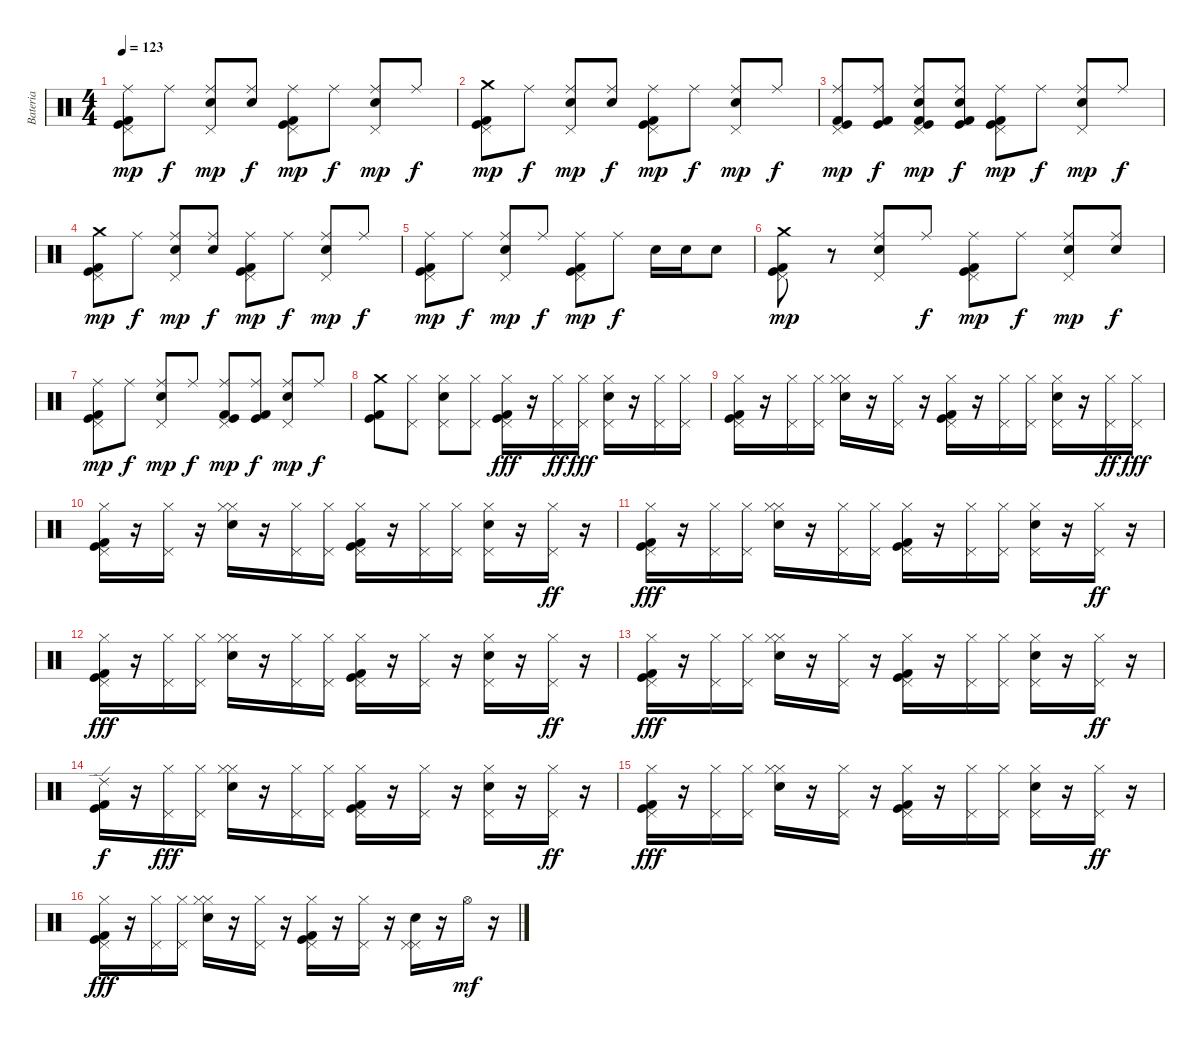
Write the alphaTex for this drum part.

\track ("Bateria" "Bateria") {instrument percussion}
\staff {score}
\articulation defaults
\ts (4 4)
\tempo 123
\clef neutral
\ks c
("Kick (hit) 2" "Pedal Hi-Hat (hit)" "Ride (middle)" "Kick (hit)").8{dy mp} "Ride (middle)".8{dy f} ("Snare (hit) 2" "Pedal Hi-Hat (hit)" "Ride (middle)").8{dy mp} ("Snare (hit) 2" "Ride (middle)").8{dy f} ("Kick (hit) 2" "Pedal Hi-Hat (hit)" "Ride (middle)" "Kick (hit)").8{dy mp} "Ride (middle)".8{dy f} ("Snare (hit) 2" "Pedal Hi-Hat (hit)" "Ride (middle)").8{dy mp} "Ride (middle)".8{dy f} |
("Kick (hit) 2" "Pedal Hi-Hat (hit)" "Crash medium (hit)" "Kick (hit)").8{dy mp} "Ride (middle)".8{dy f} ("Snare (hit) 2" "Pedal Hi-Hat (hit)" "Ride (middle)").8{dy mp} ("Snare (hit) 2" "Ride (middle)").8{dy f} ("Kick (hit) 2" "Pedal Hi-Hat (hit)" "Ride (middle)" "Kick (hit)").8{dy mp} "Ride (middle)".8{dy f} ("Snare (hit) 2" "Pedal Hi-Hat (hit)" "Ride (middle)").8{dy mp} "Ride (middle)".8{dy f} |
("Kick (hit) 2" "Pedal Hi-Hat (hit)" "Ride (middle)" "Kick (hit)").8{dy mp} ("Kick (hit) 2" "Ride (middle)" "Kick (hit)").8{dy f} ("Snare (hit) 2" "Pedal Hi-Hat (hit)" "Kick (hit) 2" "Ride (middle)" "Kick (hit)").8{dy mp} ("Snare (hit) 2" "Kick (hit) 2" "Ride (middle)" "Kick (hit)").8{dy f} ("Kick (hit) 2" "Pedal Hi-Hat (hit)" "Ride (middle)" "Kick (hit)").8{dy mp} "Ride (middle)".8{dy f} ("Snare (hit) 2" "Pedal Hi-Hat (hit)" "Ride (middle)").8{dy mp} "Ride (middle)".8{dy f} |
("Kick (hit) 2" "Pedal Hi-Hat (hit)" "Crash medium (hit)" "Kick (hit)").8{dy mp} "Ride (middle)".8{dy f} ("Snare (hit) 2" "Pedal Hi-Hat (hit)" "Ride (middle)").8{dy mp} ("Snare (hit) 2" "Ride (middle)").8{dy f} ("Kick (hit) 2" "Pedal Hi-Hat (hit)" "Ride (middle)" "Kick (hit)").8{dy mp} "Ride (middle)".8{dy f} ("Snare (hit) 2" "Pedal Hi-Hat (hit)" "Ride (middle)").8{dy mp} "Ride (middle)".8{dy f} |
("Kick (hit) 2" "Pedal Hi-Hat (hit)" "Ride (middle)" "Kick (hit)").8{dy mp} "Ride (middle)".8{dy f} ("Snare (hit) 2" "Pedal Hi-Hat (hit)" "Ride (middle)").8{dy mp} "Ride (middle)".8{dy f} ("Kick (hit) 2" "Pedal Hi-Hat (hit)" "Ride (middle)" "Kick (hit)").8{dy mp} "Ride (middle)".8{dy f} "Snare (hit) 2".16 "Snare (hit) 2".16 "Snare (hit) 2".8 |
("Kick (hit) 2" "Pedal Hi-Hat (hit)" "Crash medium (hit)" "Kick (hit)").8{dy mp} r.8 ("Snare (hit) 2" "Pedal Hi-Hat (hit)" "Ride (middle)").8 "Ride (middle)".8{dy f} ("Kick (hit) 2" "Pedal Hi-Hat (hit)" "Ride (middle)" "Kick (hit)").8{dy mp} "Ride (middle)".8{dy f} ("Snare (hit) 2" "Pedal Hi-Hat (hit)" "Ride (middle)").8{dy mp} ("Snare (hit) 2" "Ride (middle)").8{dy f} |
("Kick (hit) 2" "Pedal Hi-Hat (hit)" "Ride (middle)" "Kick (hit)").8{dy mp} "Ride (middle)".8{dy f} ("Snare (hit) 2" "Pedal Hi-Hat (hit)" "Ride (middle)").8{dy mp} "Ride (middle)".8{dy f} ("Kick (hit) 2" "Pedal Hi-Hat (hit)" "Ride (middle)" "Kick (hit)").8{dy mp} ("Kick (hit) 2" "Ride (middle)" "Kick (hit)").8{dy f} ("Snare (hit) 2" "Pedal Hi-Hat (hit)" "Ride (middle)").8{dy mp} "Ride (middle)".8{dy f} |
("Kick (hit) 2" "Crash medium (hit)" "Kick (hit)").8 ("Pedal Hi-Hat (hit)" "Hi-Hat (closed)").8 ("Snare (hit) 2" "Pedal Hi-Hat (hit)" "Hi-Hat (closed)").8 ("Pedal Hi-Hat (hit)" "Hi-Hat (closed)").8 ("Kick (hit) 2" "Hi-Hat (closed)" "Pedal Hi-Hat (hit)" "Kick (hit)").16{dy fff} r.16 ("Hi-Hat (closed)" "Pedal Hi-Hat (hit)").16{dy ff} ("Hi-Hat (closed)" "Pedal Hi-Hat (hit)").16{dy fff} ("Snare (hit) 2" "Hi-Hat (closed)" "Pedal Hi-Hat (hit)").16 r.16 ("Hi-Hat (closed)" "Pedal Hi-Hat (hit)").16 ("Hi-Hat (closed)" "Pedal Hi-Hat (hit)").16 |
("Kick (hit) 2" "Hi-Hat (closed)" "Pedal Hi-Hat (hit)" "Kick (hit)").16 r.16 ("Hi-Hat (closed)" "Pedal Hi-Hat (hit)").16 ("Hi-Hat (closed)" "Pedal Hi-Hat (hit)").16 ("Snare (hit) 2" "Hi-Hat (closed)" "Hi-Hat (closed)").16 r.16 ("Hi-Hat (closed)" "Pedal Hi-Hat (hit)").16 r.16 ("Kick (hit) 2" "Hi-Hat (closed)" "Pedal Hi-Hat (hit)" "Kick (hit)").16 r.16 ("Hi-Hat (closed)" "Pedal Hi-Hat (hit)").16 ("Hi-Hat (closed)" "Pedal Hi-Hat (hit)").16 ("Snare (hit) 2" "Hi-Hat (closed)" "Pedal Hi-Hat (hit)").16 r.16 ("Hi-Hat (closed)" "Pedal Hi-Hat (hit)").16{dy ff} ("Hi-Hat (closed)" "Pedal Hi-Hat (hit)").16{dy fff} |
("Kick (hit) 2" "Pedal Hi-Hat (hit)" "Hi-Hat (closed)" "Kick (hit)").16 r.16 ("Hi-Hat (closed)" "Pedal Hi-Hat (hit)").16 r.16 ("Snare (hit) 2" "Hi-Hat (closed)" "Hi-Hat (closed)").16 r.16 ("Hi-Hat (closed)" "Pedal Hi-Hat (hit)").16 ("Hi-Hat (closed)" "Pedal Hi-Hat (hit)").16 ("Kick (hit) 2" "Hi-Hat (closed)" "Pedal Hi-Hat (hit)" "Kick (hit)").16 r.16 ("Hi-Hat (closed)" "Pedal Hi-Hat (hit)").16 ("Hi-Hat (closed)" "Pedal Hi-Hat (hit)").16 ("Snare (hit) 2" "Hi-Hat (closed)" "Pedal Hi-Hat (hit)").16 r.16 ("Hi-Hat (closed)" "Pedal Hi-Hat (hit)").16{dy ff} r.16 |
("Kick (hit) 2" "Hi-Hat (closed)" "Pedal Hi-Hat (hit)" "Kick (hit)").16{dy fff} r.16 ("Hi-Hat (closed)" "Pedal Hi-Hat (hit)").16 ("Hi-Hat (closed)" "Pedal Hi-Hat (hit)").16 ("Snare (hit) 2" "Hi-Hat (closed)" "Hi-Hat (closed)").16 r.16 ("Hi-Hat (closed)" "Pedal Hi-Hat (hit)").16 ("Hi-Hat (closed)" "Pedal Hi-Hat (hit)").16 ("Kick (hit) 2" "Hi-Hat (closed)" "Pedal Hi-Hat (hit)" "Kick (hit)").16 r.16 ("Hi-Hat (closed)" "Pedal Hi-Hat (hit)").16 ("Hi-Hat (closed)" "Pedal Hi-Hat (hit)").16 ("Snare (hit) 2" "Hi-Hat (closed)" "Pedal Hi-Hat (hit)").16 r.16 ("Hi-Hat (closed)" "Pedal Hi-Hat (hit)").16{dy ff} r.16 |
("Kick (hit) 2" "Pedal Hi-Hat (hit)" "Hi-Hat (closed)" "Kick (hit)").16{dy fff} r.16 ("Hi-Hat (closed)" "Pedal Hi-Hat (hit)").16 ("Hi-Hat (closed)" "Pedal Hi-Hat (hit)").16 ("Snare (hit) 2" "Hi-Hat (closed)" "Hi-Hat (closed)").16 r.16 ("Hi-Hat (closed)" "Pedal Hi-Hat (hit)").16 ("Hi-Hat (closed)" "Pedal Hi-Hat (hit)").16 ("Kick (hit) 2" "Hi-Hat (closed)" "Pedal Hi-Hat (hit)" "Kick (hit)").16 r.16 ("Hi-Hat (closed)" "Pedal Hi-Hat (hit)").16 r.16 ("Snare (hit) 2" "Hi-Hat (closed)" "Pedal Hi-Hat (hit)").16 r.16 ("Hi-Hat (closed)" "Pedal Hi-Hat (hit)").16{dy ff} r.16 |
("Kick (hit) 2" "Hi-Hat (closed)" "Pedal Hi-Hat (hit)" "Kick (hit)").16{dy fff} r.16 ("Hi-Hat (closed)" "Pedal Hi-Hat (hit)").16 ("Hi-Hat (closed)" "Pedal Hi-Hat (hit)").16 ("Snare (hit) 2" "Hi-Hat (closed)" "Hi-Hat (closed)").16 r.16 ("Hi-Hat (closed)" "Pedal Hi-Hat (hit)").16 r.16 ("Kick (hit) 2" "Hi-Hat (closed)" "Pedal Hi-Hat (hit)" "Kick (hit)").16 r.16 ("Hi-Hat (closed)" "Pedal Hi-Hat (hit)").16 ("Hi-Hat (closed)" "Pedal Hi-Hat (hit)").16 ("Snare (hit) 2" "Hi-Hat (closed)" "Pedal Hi-Hat (hit)").16 r.16 ("Hi-Hat (closed)" "Pedal Hi-Hat (hit)").16{dy ff} r.16 |
("Kick (hit) 2" "Ride (edge) 2" "Kick (hit)").16{dy f} r.16 ("Hi-Hat (closed)" "Pedal Hi-Hat (hit)").16{dy fff} ("Hi-Hat (closed)" "Pedal Hi-Hat (hit)").16 ("Snare (hit) 2" "Hi-Hat (closed)" "Hi-Hat (closed)").16 r.16 ("Hi-Hat (closed)" "Pedal Hi-Hat (hit)").16 ("Hi-Hat (closed)" "Pedal Hi-Hat (hit)").16 ("Kick (hit) 2" "Hi-Hat (closed)" "Pedal Hi-Hat (hit)" "Kick (hit)").16 r.16 ("Hi-Hat (closed)" "Pedal Hi-Hat (hit)").16 r.16 ("Snare (hit) 2" "Hi-Hat (closed)" "Pedal Hi-Hat (hit)").16 r.16 ("Hi-Hat (closed)" "Pedal Hi-Hat (hit)").16{dy ff} r.16 |
("Kick (hit) 2" "Hi-Hat (closed)" "Pedal Hi-Hat (hit)" "Kick (hit)").16{dy fff} r.16 ("Hi-Hat (closed)" "Pedal Hi-Hat (hit)").16 ("Hi-Hat (closed)" "Pedal Hi-Hat (hit)").16 ("Snare (hit) 2" "Hi-Hat (closed)" "Hi-Hat (closed)").16 r.16 ("Hi-Hat (closed)" "Pedal Hi-Hat (hit)").16 r.16 ("Kick (hit) 2" "Hi-Hat (closed)" "Pedal Hi-Hat (hit)" "Kick (hit)").16 r.16 ("Hi-Hat (closed)" "Pedal Hi-Hat (hit)").16 ("Hi-Hat (closed)" "Pedal Hi-Hat (hit)").16 ("Snare (hit) 2" "Hi-Hat (closed)" "Pedal Hi-Hat (hit)").16 r.16 ("Hi-Hat (closed)" "Pedal Hi-Hat (hit)").16{dy ff} r.16 |
("Kick (hit) 2" "Pedal Hi-Hat (hit)" "Hi-Hat (closed)" "Kick (hit)").16{dy fff} r.16 ("Hi-Hat (closed)" "Pedal Hi-Hat (hit)").16 ("Hi-Hat (closed)" "Pedal Hi-Hat (hit)").16 ("Snare (hit) 2" "Hi-Hat (closed)" "Hi-Hat (closed)").16 r.16 ("Pedal Hi-Hat (hit)" "Hi-Hat (closed)").16 r.16 ("Kick (hit) 2" "Pedal Hi-Hat (hit)" "Hi-Hat (closed)" "Kick (hit)").16 r.16 ("Pedal Hi-Hat (hit)" "Hi-Hat (closed)").16 r.16 ("Snare (hit) 2" "Pedal Hi-Hat (hit)" "Pedal Hi-Hat (hit)").16 r.16 "Hi-Hat (open)".16{dy mf} r.16
